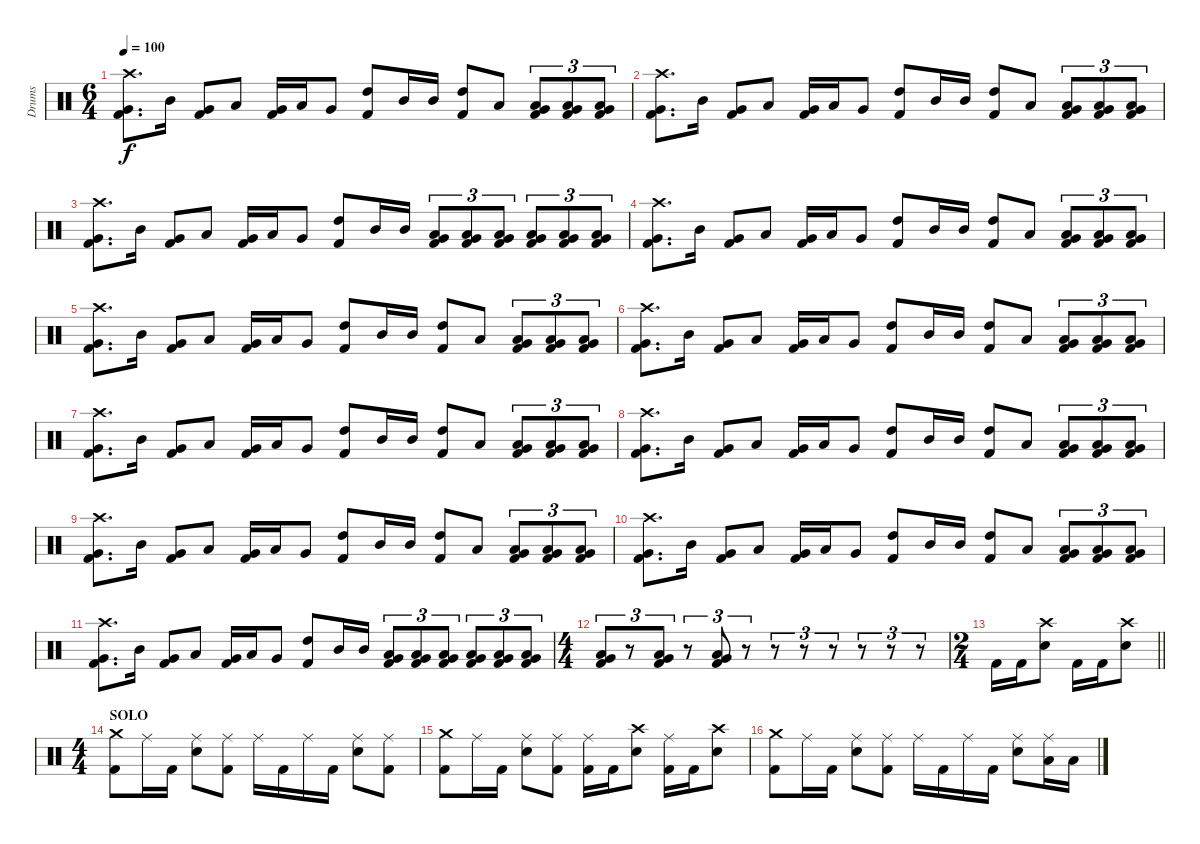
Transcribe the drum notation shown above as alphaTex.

\track ("Drums" "Drums") {instrument percussion}
\staff {score}
\articulation defaults
\ts (6 4)
\tempo 100
\clef neutral
\ks c
("Crash high (hit)" "Very Low Tom (hit)" "Kick (hit) 2").8{d dy f} "Mid Tom (hit)".16 ("Very Low Tom (hit)" "Kick (hit) 2").8 "Low Tom (hit)".8 ("Very Low Tom (hit)" "Kick (hit) 2").16 "Low Tom (hit)".16 "Very Low Tom (hit)".8 ("High Tom (hit)" "Kick (hit) 2").8 "Mid Tom (hit)".16 "Mid Tom (hit)".16 ("High Tom (hit)" "Kick (hit) 2").8 "Low Tom (hit)".8 ("Low Tom (hit)" "Very Low Tom (hit)" "Kick (hit) 2").8{tu (3 2)} ("Low Tom (hit)" "Very Low Tom (hit)" "Kick (hit) 2").8{tu (3 2)} ("Low Tom (hit)" "Very Low Tom (hit)" "Kick (hit) 2").8{tu (3 2)} |
("Crash high (hit)" "Very Low Tom (hit)" "Kick (hit) 2").8{d} "Mid Tom (hit)".16 ("Very Low Tom (hit)" "Kick (hit) 2").8 "Low Tom (hit)".8 ("Very Low Tom (hit)" "Kick (hit) 2").16 "Low Tom (hit)".16 "Very Low Tom (hit)".8 ("High Tom (hit)" "Kick (hit) 2").8 "Mid Tom (hit)".16 "Mid Tom (hit)".16 ("High Tom (hit)" "Kick (hit) 2").8 "Low Tom (hit)".8 ("Low Tom (hit)" "Very Low Tom (hit)" "Kick (hit) 2").8{tu (3 2)} ("Low Tom (hit)" "Very Low Tom (hit)" "Kick (hit) 2").8{tu (3 2)} ("Low Tom (hit)" "Very Low Tom (hit)" "Kick (hit) 2").8{tu (3 2)} |
("Crash high (hit)" "Very Low Tom (hit)" "Kick (hit) 2").8{d} "Mid Tom (hit)".16 ("Very Low Tom (hit)" "Kick (hit) 2").8 "Low Tom (hit)".8 ("Very Low Tom (hit)" "Kick (hit) 2").16 "Low Tom (hit)".16 "Very Low Tom (hit)".8 ("High Tom (hit)" "Kick (hit) 2").8 "Mid Tom (hit)".16 "Mid Tom (hit)".16 ("Low Tom (hit)" "Very Low Tom (hit)" "Kick (hit) 2").8{tu (3 2)} ("Low Tom (hit)" "Very Low Tom (hit)" "Kick (hit) 2").8{tu (3 2)} ("Low Tom (hit)" "Very Low Tom (hit)" "Kick (hit) 2").8{tu (3 2)} ("Low Tom (hit)" "Very Low Tom (hit)" "Kick (hit) 2").8{tu (3 2)} ("Low Tom (hit)" "Very Low Tom (hit)" "Kick (hit) 2").8{tu (3 2)} ("Low Tom (hit)" "Very Low Tom (hit)" "Kick (hit) 2").8{tu (3 2)} |
("Crash high (hit)" "Very Low Tom (hit)" "Kick (hit) 2").8{d} "Mid Tom (hit)".16 ("Very Low Tom (hit)" "Kick (hit) 2").8 "Low Tom (hit)".8 ("Very Low Tom (hit)" "Kick (hit) 2").16 "Low Tom (hit)".16 "Very Low Tom (hit)".8 ("High Tom (hit)" "Kick (hit) 2").8 "Mid Tom (hit)".16 "Mid Tom (hit)".16 ("High Tom (hit)" "Kick (hit) 2").8 "Low Tom (hit)".8 ("Low Tom (hit)" "Very Low Tom (hit)" "Kick (hit) 2").8{tu (3 2)} ("Low Tom (hit)" "Very Low Tom (hit)" "Kick (hit) 2").8{tu (3 2)} ("Low Tom (hit)" "Very Low Tom (hit)" "Kick (hit) 2").8{tu (3 2)} |
("Crash high (hit)" "Very Low Tom (hit)" "Kick (hit) 2").8{d} "Mid Tom (hit)".16 ("Very Low Tom (hit)" "Kick (hit) 2").8 "Low Tom (hit)".8 ("Very Low Tom (hit)" "Kick (hit) 2").16 "Low Tom (hit)".16 "Very Low Tom (hit)".8 ("High Tom (hit)" "Kick (hit) 2").8 "Mid Tom (hit)".16 "Mid Tom (hit)".16 ("High Tom (hit)" "Kick (hit) 2").8 "Low Tom (hit)".8 ("Low Tom (hit)" "Very Low Tom (hit)" "Kick (hit) 2").8{tu (3 2)} ("Low Tom (hit)" "Very Low Tom (hit)" "Kick (hit) 2").8{tu (3 2)} ("Low Tom (hit)" "Very Low Tom (hit)" "Kick (hit) 2").8{tu (3 2)} |
("Crash high (hit)" "Very Low Tom (hit)" "Kick (hit) 2").8{d} "Mid Tom (hit)".16 ("Very Low Tom (hit)" "Kick (hit) 2").8 "Low Tom (hit)".8 ("Very Low Tom (hit)" "Kick (hit) 2").16 "Low Tom (hit)".16 "Very Low Tom (hit)".8 ("High Tom (hit)" "Kick (hit) 2").8 "Mid Tom (hit)".16 "Mid Tom (hit)".16 ("High Tom (hit)" "Kick (hit) 2").8 "Low Tom (hit)".8 ("Low Tom (hit)" "Very Low Tom (hit)" "Kick (hit) 2").8{tu (3 2)} ("Low Tom (hit)" "Very Low Tom (hit)" "Kick (hit) 2").8{tu (3 2)} ("Low Tom (hit)" "Very Low Tom (hit)" "Kick (hit) 2").8{tu (3 2)} |
("Crash high (hit)" "Very Low Tom (hit)" "Kick (hit) 2").8{d} "Mid Tom (hit)".16 ("Very Low Tom (hit)" "Kick (hit) 2").8 "Low Tom (hit)".8 ("Very Low Tom (hit)" "Kick (hit) 2").16 "Low Tom (hit)".16 "Very Low Tom (hit)".8 ("High Tom (hit)" "Kick (hit) 2").8 "Mid Tom (hit)".16 "Mid Tom (hit)".16 ("High Tom (hit)" "Kick (hit) 2").8 "Low Tom (hit)".8 ("Low Tom (hit)" "Very Low Tom (hit)" "Kick (hit) 2").8{tu (3 2)} ("Low Tom (hit)" "Very Low Tom (hit)" "Kick (hit) 2").8{tu (3 2)} ("Low Tom (hit)" "Very Low Tom (hit)" "Kick (hit) 2").8{tu (3 2)} |
("Crash high (hit)" "Very Low Tom (hit)" "Kick (hit) 2").8{d} "Mid Tom (hit)".16 ("Very Low Tom (hit)" "Kick (hit) 2").8 "Low Tom (hit)".8 ("Very Low Tom (hit)" "Kick (hit) 2").16 "Low Tom (hit)".16 "Very Low Tom (hit)".8 ("High Tom (hit)" "Kick (hit) 2").8 "Mid Tom (hit)".16 "Mid Tom (hit)".16 ("High Tom (hit)" "Kick (hit) 2").8 "Low Tom (hit)".8 ("Low Tom (hit)" "Very Low Tom (hit)" "Kick (hit) 2").8{tu (3 2)} ("Low Tom (hit)" "Very Low Tom (hit)" "Kick (hit) 2").8{tu (3 2)} ("Low Tom (hit)" "Very Low Tom (hit)" "Kick (hit) 2").8{tu (3 2)} |
("Crash high (hit)" "Very Low Tom (hit)" "Kick (hit) 2").8{d} "Mid Tom (hit)".16 ("Very Low Tom (hit)" "Kick (hit) 2").8 "Low Tom (hit)".8 ("Very Low Tom (hit)" "Kick (hit) 2").16 "Low Tom (hit)".16 "Very Low Tom (hit)".8 ("High Tom (hit)" "Kick (hit) 2").8 "Mid Tom (hit)".16 "Mid Tom (hit)".16 ("High Tom (hit)" "Kick (hit) 2").8 "Low Tom (hit)".8 ("Low Tom (hit)" "Very Low Tom (hit)" "Kick (hit) 2").8{tu (3 2)} ("Low Tom (hit)" "Very Low Tom (hit)" "Kick (hit) 2").8{tu (3 2)} ("Low Tom (hit)" "Very Low Tom (hit)" "Kick (hit) 2").8{tu (3 2)} |
("Crash high (hit)" "Very Low Tom (hit)" "Kick (hit) 2").8{d} "Mid Tom (hit)".16 ("Very Low Tom (hit)" "Kick (hit) 2").8 "Low Tom (hit)".8 ("Very Low Tom (hit)" "Kick (hit) 2").16 "Low Tom (hit)".16 "Very Low Tom (hit)".8 ("High Tom (hit)" "Kick (hit) 2").8 "Mid Tom (hit)".16 "Mid Tom (hit)".16 ("High Tom (hit)" "Kick (hit) 2").8 "Low Tom (hit)".8 ("Low Tom (hit)" "Very Low Tom (hit)" "Kick (hit) 2").8{tu (3 2)} ("Low Tom (hit)" "Very Low Tom (hit)" "Kick (hit) 2").8{tu (3 2)} ("Low Tom (hit)" "Very Low Tom (hit)" "Kick (hit) 2").8{tu (3 2)} |
("Crash high (hit)" "Very Low Tom (hit)" "Kick (hit) 2").8{d} "Mid Tom (hit)".16 ("Very Low Tom (hit)" "Kick (hit) 2").8 "Low Tom (hit)".8 ("Very Low Tom (hit)" "Kick (hit) 2").16 "Low Tom (hit)".16 "Very Low Tom (hit)".8 ("High Tom (hit)" "Kick (hit) 2").8 "Mid Tom (hit)".16 "Mid Tom (hit)".16 ("Low Tom (hit)" "Very Low Tom (hit)" "Kick (hit) 2").8{tu (3 2)} ("Low Tom (hit)" "Very Low Tom (hit)" "Kick (hit) 2").8{tu (3 2)} ("Low Tom (hit)" "Very Low Tom (hit)" "Kick (hit) 2").8{tu (3 2)} ("Low Tom (hit)" "Very Low Tom (hit)" "Kick (hit) 2").8{tu (3 2)} ("Low Tom (hit)" "Very Low Tom (hit)" "Kick (hit) 2").8{tu (3 2)} ("Low Tom (hit)" "Very Low Tom (hit)" "Kick (hit) 2").8{tu (3 2)} |
\ts (4 4)
("Low Tom (hit)" "Very Low Tom (hit)" "Kick (hit) 2").8{tu (3 2)} r.8{tu (3 2)} ("Low Tom (hit)" "Very Low Tom (hit)" "Kick (hit) 2").8{tu (3 2)} r.8{tu (3 2)} ("Low Tom (hit)" "Very Low Tom (hit)" "Kick (hit) 2").8{tu (3 2)} r.8{tu (3 2)} r.8{tu (3 2)} r.8{tu (3 2)} r.8{tu (3 2)} r.8{tu (3 2)} r.8{tu (3 2)} r.8{tu (3 2)} |
\ts (2 4)
\barLineRight lightlight "Kick (hit) 2".16 "Kick (hit) 2".16
("Crash high (hit)" "Snare (hit) 2").8 "Kick (hit) 2".16 "Kick (hit) 2".16 ("Crash high (hit)" "Snare (hit) 2").8 |
\ts (4 4)
\section ("" "SOLO")
("Crash medium (hit)" "Kick (hit) 2").8 "Ride (middle)".16 "Kick (hit) 2".16 ("Ride (middle)" "Snare (hit) 2").8 ("Ride (middle)" "Kick (hit) 2").8 "Ride (middle)".16 "Kick (hit) 2".16 "Ride (middle)".16 "Kick (hit) 2".16 ("Ride (middle)" "Snare (hit) 2").8 ("Ride (middle)" "Kick (hit) 2").8 |
("Crash medium (hit)" "Kick (hit) 2").8 "Ride (middle)".16 "Kick (hit) 2".16 ("Ride (middle)" "Snare (hit) 2").8 ("Ride (middle)" "Kick (hit) 2").8 ("Ride (middle)" "Kick (hit) 2").16 "Kick (hit) 2".16 ("Crash high (hit)" "Snare (hit) 2").8 ("Ride (middle)" "Kick (hit) 2").16 "Kick (hit) 2".16 ("Crash high (hit)" "Snare (hit) 2").8 |
("Crash medium (hit)" "Kick (hit) 2").8 "Ride (middle)".16 "Kick (hit) 2".16 ("Ride (middle)" "Snare (hit) 2").8 ("Ride (middle)" "Kick (hit) 2").8 "Ride (middle)".16 "Kick (hit) 2".16 "Ride (middle)".16 "Kick (hit) 2".16 ("Ride (middle)" "Snare (hit) 2").8 ("Ride (middle)" "Low Tom (hit)").16 "Low Tom (hit)".16
